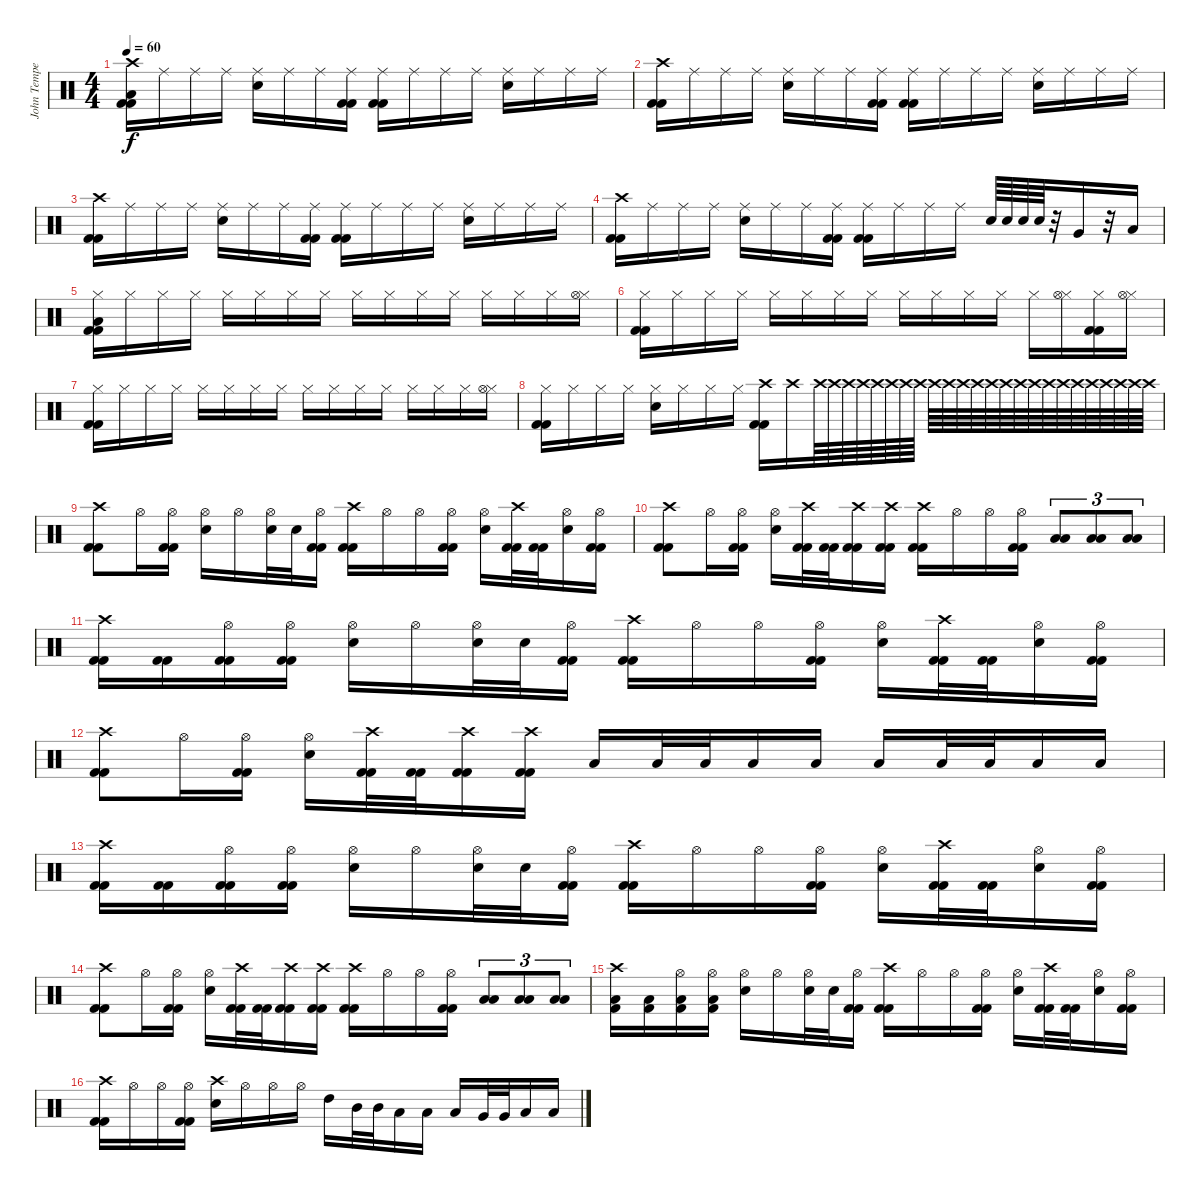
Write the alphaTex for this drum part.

\track ("John Tempesta" "John Tempe") {instrument percussion}
\staff {score}
\articulation defaults
\ts (4 4)
\tempo 60
\clef neutral
\ks c
("Crash high (hit)" "Low Floor Tom (hit)" "Kick (hit) 2" "Kick (hit) 2").16{dy f} "Ride (middle)".16 "Ride (middle)".16 "Ride (middle)".16 ("Ride (middle)" "Electric Snare (hit)").16 "Ride (middle)".16 "Ride (middle)".16 ("Ride (middle)" "Kick (hit) 2" "Kick (hit) 2").16 ("Ride (middle)" "Kick (hit) 2" "Kick (hit) 2").16 "Ride (middle)".16 "Ride (middle)".16 "Ride (middle)".16 ("Ride (middle)" "Electric Snare (hit)").16 "Ride (middle)".16 "Ride (middle)".16 "Ride (middle)".16 |
("Crash high (hit)" "Kick (hit) 2" "Kick (hit) 2").16 "Ride (middle)".16 "Ride (middle)".16 "Ride (middle)".16 ("Ride (middle)" "Electric Snare (hit)").16 "Ride (middle)".16 "Ride (middle)".16 ("Ride (middle)" "Kick (hit) 2" "Kick (hit) 2").16 ("Ride (middle)" "Kick (hit) 2" "Kick (hit) 2").16 "Ride (middle)".16 "Ride (middle)".16 "Ride (middle)".16 ("Ride (middle)" "Electric Snare (hit)").16 "Ride (middle)".16 "Ride (middle)".16 "Ride (middle)".16 |
("Crash high (hit)" "Kick (hit) 2" "Kick (hit) 2").16 "Ride (middle)".16 "Ride (middle)".16 "Ride (middle)".16 ("Ride (middle)" "Electric Snare (hit)").16 "Ride (middle)".16 "Ride (middle)".16 ("Ride (middle)" "Kick (hit) 2" "Kick (hit) 2").16 ("Ride (middle)" "Kick (hit) 2" "Kick (hit) 2").16 "Ride (middle)".16 "Ride (middle)".16 "Ride (middle)".16 ("Ride (middle)" "Electric Snare (hit)").16 "Ride (middle)".16 "Ride (middle)".16 "Ride (middle)".16 |
("Crash high (hit)" "Kick (hit) 2" "Kick (hit) 2").16 "Ride (middle)".16 "Ride (middle)".16 "Ride (middle)".16 ("Ride (middle)" "Electric Snare (hit)").16 "Ride (middle)".16 "Ride (middle)".16 ("Ride (middle)" "Kick (hit) 2" "Kick (hit) 2").16 ("Ride (middle)" "Kick (hit) 2" "Kick (hit) 2").16 "Ride (middle)".16 "Ride (middle)".16 "Ride (middle)".16 "Electric Snare (hit)".64 "Electric Snare (hit)".64 "Electric Snare (hit)".64 "Electric Snare (hit)".64 r.32 "Very Low Tom (hit)".16 r.32 "Low Floor Tom (hit)".16 |
("Hi-Hat (closed)" "Low Floor Tom (hit)" "Kick (hit) 2" "Kick (hit) 2").16 "Hi-Hat (closed)".16 "Hi-Hat (closed)".16 "Hi-Hat (closed)".16 "Hi-Hat (closed)".16 "Hi-Hat (closed)".16 "Hi-Hat (closed)".16 "Hi-Hat (closed)".16 "Hi-Hat (closed)".16 "Hi-Hat (closed)".16 "Hi-Hat (closed)".16 "Hi-Hat (closed)".16 "Hi-Hat (closed)".16 "Hi-Hat (closed)".16 "Hi-Hat (closed)".16 ("Hi-Hat (closed)" "Hi-Hat (open)").16 |
("Hi-Hat (closed)" "Kick (hit) 2" "Kick (hit) 2").16 "Hi-Hat (closed)".16 "Hi-Hat (closed)".16 "Hi-Hat (closed)".16 "Hi-Hat (closed)".16 "Hi-Hat (closed)".16 "Hi-Hat (closed)".16 "Hi-Hat (closed)".16 "Hi-Hat (closed)".16 "Hi-Hat (closed)".16 "Hi-Hat (closed)".16 "Hi-Hat (closed)".16 "Hi-Hat (closed)".16 ("Hi-Hat (closed)" "Hi-Hat (open)").16 ("Hi-Hat (closed)" "Kick (hit) 2" "Kick (hit) 2").16 ("Hi-Hat (closed)" "Hi-Hat (open)").16 |
("Hi-Hat (closed)" "Kick (hit) 2" "Kick (hit) 2").16 "Hi-Hat (closed)".16 "Hi-Hat (closed)".16 "Hi-Hat (closed)".16 "Hi-Hat (closed)".16 "Hi-Hat (closed)".16 "Hi-Hat (closed)".16 "Hi-Hat (closed)".16 "Hi-Hat (closed)".16 "Hi-Hat (closed)".16 "Hi-Hat (closed)".16 "Hi-Hat (closed)".16 "Hi-Hat (closed)".16 "Hi-Hat (closed)".16 "Hi-Hat (closed)".16 ("Hi-Hat (closed)" "Hi-Hat (open)").16 |
("Hi-Hat (closed)" "Kick (hit) 2" "Kick (hit) 2").16 "Hi-Hat (closed)".16 "Hi-Hat (closed)".16 "Hi-Hat (closed)".16 ("Hi-Hat (closed)" "Electric Snare (hit)").16 "Hi-Hat (closed)".16 "Hi-Hat (closed)".16 "Hi-Hat (closed)".16 ("Crash high (hit)" "Kick (hit) 2" "Kick (hit) 2").16 "Crash high (hit)".16{volume 0} "Crash high (hit)".64{volume 16} "Crash high (hit)".64 "Crash high (hit)".64 "Crash high (hit)".64 "Crash high (hit)".64 "Crash high (hit)".64 "Crash high (hit)".64 "Crash high (hit)".64 "Crash high (hit)".64 "Crash high (hit)".64 "Crash high (hit)".64 "Crash high (hit)".64 "Crash high (hit)".64 "Crash high (hit)".64 "Crash high (hit)".64 "Crash high (hit)".64 "Crash high (hit)".64 "Crash high (hit)".64 "Crash high (hit)".64 "Crash high (hit)".64 "Crash high (hit)".64 "Crash high (hit)".64 "Crash high (hit)".64 "Crash high (hit)".64 |
("Crash high (hit)" "Kick (hit) 2" "Kick (hit) 2").8 "Hi-Hat (open)".16 ("Hi-Hat (open)" "Kick (hit) 2" "Kick (hit) 2").16 ("Hi-Hat (open)" "Electric Snare (hit)").16 "Hi-Hat (open)".16 ("Hi-Hat (open)" "Electric Snare (hit)").32 "Electric Snare (hit)".32 ("Hi-Hat (open)" "Kick (hit) 2" "Kick (hit) 2").16 ("Crash high (hit)" "Kick (hit) 2" "Kick (hit) 2").16 "Hi-Hat (open)".16 "Hi-Hat (open)".16 ("Hi-Hat (open)" "Kick (hit) 2" "Kick (hit) 2").16 ("Hi-Hat (open)" "Electric Snare (hit)").16 ("Crash high (hit)" "Kick (hit) 2" "Kick (hit) 2").32 ("Kick (hit) 2" "Kick (hit) 2").32 ("Hi-Hat (open)" "Electric Snare (hit)").16 ("Hi-Hat (open)" "Kick (hit) 2" "Kick (hit) 2").16 |
("Crash high (hit)" "Kick (hit) 2" "Kick (hit) 2").8 "Hi-Hat (open)".16 ("Hi-Hat (open)" "Kick (hit) 2" "Kick (hit) 2").16 ("Hi-Hat (open)" "Electric Snare (hit)").16 ("Crash high (hit)" "Kick (hit) 2" "Kick (hit) 2").32 ("Kick (hit) 2" "Kick (hit) 2").32 ("Crash high (hit)" "Kick (hit) 2" "Kick (hit) 2").16 ("Crash high (hit)" "Kick (hit) 2" "Kick (hit) 2").16 ("Crash high (hit)" "Kick (hit) 2" "Kick (hit) 2").16 "Hi-Hat (open)".16 "Hi-Hat (open)".16 ("Hi-Hat (open)" "Kick (hit) 2" "Kick (hit) 2").16 ("Low Floor Tom (hit)" "Low Floor Tom (hit)").8{tu (3 2)} ("Low Floor Tom (hit)" "Low Floor Tom (hit)").8{tu (3 2)} ("Low Floor Tom (hit)" "Low Floor Tom (hit)").8{tu (3 2)} |
("Crash high (hit)" "Kick (hit) 2" "Kick (hit) 2").16 ("Kick (hit) 2" "Kick (hit) 2").16 ("Hi-Hat (open)" "Kick (hit) 2" "Kick (hit) 2").16 ("Hi-Hat (open)" "Kick (hit) 2" "Kick (hit) 2").16 ("Hi-Hat (open)" "Electric Snare (hit)").16 "Hi-Hat (open)".16 ("Hi-Hat (open)" "Electric Snare (hit)").32 "Electric Snare (hit)".32 ("Hi-Hat (open)" "Kick (hit) 2" "Kick (hit) 2").16 ("Crash high (hit)" "Kick (hit) 2" "Kick (hit) 2").16 "Hi-Hat (open)".16 "Hi-Hat (open)".16 ("Hi-Hat (open)" "Kick (hit) 2" "Kick (hit) 2").16 ("Hi-Hat (open)" "Electric Snare (hit)").16 ("Crash high (hit)" "Kick (hit) 2" "Kick (hit) 2").32 ("Kick (hit) 2" "Kick (hit) 2").32 ("Hi-Hat (open)" "Electric Snare (hit)").16 ("Hi-Hat (open)" "Kick (hit) 2" "Kick (hit) 2").16 |
("Crash high (hit)" "Kick (hit) 2" "Kick (hit) 2").8 "Hi-Hat (open)".16 ("Hi-Hat (open)" "Kick (hit) 2" "Kick (hit) 2").16 ("Hi-Hat (open)" "Electric Snare (hit)").16 ("Crash high (hit)" "Kick (hit) 2" "Kick (hit) 2").32 ("Kick (hit) 2" "Kick (hit) 2").32 ("Crash high (hit)" "Kick (hit) 2" "Kick (hit) 2").16 ("Crash high (hit)" "Kick (hit) 2" "Kick (hit) 2").16 "Low Floor Tom (hit)".16 "Low Floor Tom (hit)".32 "Low Floor Tom (hit)".32 "Low Floor Tom (hit)".16 "Low Floor Tom (hit)".16 "Low Floor Tom (hit)".16 "Low Floor Tom (hit)".32 "Low Floor Tom (hit)".32 "Low Floor Tom (hit)".16 "Low Floor Tom (hit)".16 |
("Crash high (hit)" "Kick (hit) 2" "Kick (hit) 2").16 ("Kick (hit) 2" "Kick (hit) 2").16 ("Hi-Hat (open)" "Kick (hit) 2" "Kick (hit) 2").16 ("Hi-Hat (open)" "Kick (hit) 2" "Kick (hit) 2").16 ("Hi-Hat (open)" "Electric Snare (hit)").16 "Hi-Hat (open)".16 ("Hi-Hat (open)" "Electric Snare (hit)").32 "Electric Snare (hit)".32 ("Hi-Hat (open)" "Kick (hit) 2" "Kick (hit) 2").16 ("Crash high (hit)" "Kick (hit) 2" "Kick (hit) 2").16 "Hi-Hat (open)".16 "Hi-Hat (open)".16 ("Hi-Hat (open)" "Kick (hit) 2" "Kick (hit) 2").16 ("Hi-Hat (open)" "Electric Snare (hit)").16 ("Crash high (hit)" "Kick (hit) 2" "Kick (hit) 2").32 ("Kick (hit) 2" "Kick (hit) 2").32 ("Hi-Hat (open)" "Electric Snare (hit)").16 ("Hi-Hat (open)" "Kick (hit) 2" "Kick (hit) 2").16 |
("Crash high (hit)" "Kick (hit) 2" "Kick (hit) 2").8 "Hi-Hat (open)".16 ("Hi-Hat (open)" "Kick (hit) 2" "Kick (hit) 2").16 ("Hi-Hat (open)" "Electric Snare (hit)").16 ("Crash high (hit)" "Kick (hit) 2" "Kick (hit) 2").32 ("Kick (hit) 2" "Kick (hit) 2").32 ("Crash high (hit)" "Kick (hit) 2" "Kick (hit) 2").16 ("Crash high (hit)" "Kick (hit) 2" "Kick (hit) 2").16 ("Crash high (hit)" "Kick (hit) 2" "Kick (hit) 2").16 "Hi-Hat (open)".16 "Hi-Hat (open)".16 ("Hi-Hat (open)" "Kick (hit) 2" "Kick (hit) 2").16 ("Low Floor Tom (hit)" "Low Floor Tom (hit)").8{tu (3 2)} ("Low Floor Tom (hit)" "Low Floor Tom (hit)").8{tu (3 2)} ("Low Floor Tom (hit)" "Low Floor Tom (hit)").8{tu (3 2)} |
("Crash high (hit)" "Low Floor Tom (hit)" "Kick (hit) 2").16 ("Low Floor Tom (hit)" "Kick (hit) 2").16 ("Hi-Hat (open)" "Low Floor Tom (hit)" "Kick (hit) 2").16 ("Hi-Hat (open)" "Low Floor Tom (hit)" "Kick (hit) 2").16 ("Hi-Hat (open)" "Electric Snare (hit)").16 "Hi-Hat (open)".16 ("Hi-Hat (open)" "Electric Snare (hit)").32 "Electric Snare (hit)".32 ("Hi-Hat (open)" "Kick (hit) 2" "Kick (hit) 2").16 ("Crash high (hit)" "Kick (hit) 2" "Kick (hit) 2").16 "Hi-Hat (open)".16 "Hi-Hat (open)".16 ("Hi-Hat (open)" "Kick (hit) 2" "Kick (hit) 2").16 ("Hi-Hat (open)" "Electric Snare (hit)").16 ("Crash high (hit)" "Kick (hit) 2" "Kick (hit) 2").32 ("Kick (hit) 2" "Kick (hit) 2").32 ("Hi-Hat (open)" "Electric Snare (hit)").16 ("Hi-Hat (open)" "Kick (hit) 2" "Kick (hit) 2").16 |
("Crash high (hit)" "Kick (hit) 2" "Kick (hit) 2").16 "Hi-Hat (open)".16 "Hi-Hat (open)".16 ("Hi-Hat (open)" "Kick (hit) 2" "Kick (hit) 2").16 ("Crash high (hit)" "Electric Snare (hit)").16 "Hi-Hat (open)".16 "Hi-Hat (open)".16 "Hi-Hat (open)".16 "High Tom (hit)".16 "Mid Tom (hit)".32 "Mid Tom (hit)".32 "Low Tom (hit)".16 "Low Tom (hit)".16 "Low Tom (hit)".16 "Very Low Tom (hit)".32 "Very Low Tom (hit)".32 "Low Floor Tom (hit)".16 "Low Floor Tom (hit)".16
